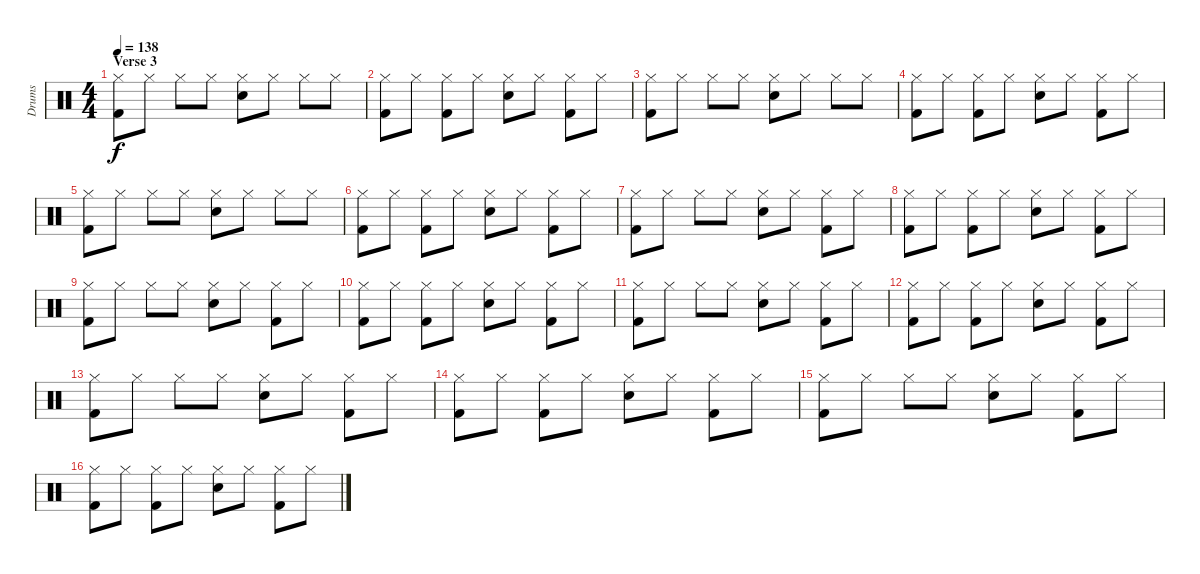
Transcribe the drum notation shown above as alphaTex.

\track ("Drums" "Drums") {instrument percussion}
\staff {score}
\articulation defaults
\ts (4 4)
\section ("" "Verse 3")
\tempo 138
\clef neutral
\ks c
("Hi-Hat (closed)" "Kick (hit) 2").8{dy f} "Hi-Hat (closed)".8 "Hi-Hat (closed)".8 "Hi-Hat (closed)".8 ("Hi-Hat (closed)" "Electric Snare (hit)").8 "Hi-Hat (closed)".8 "Hi-Hat (closed)".8 "Hi-Hat (closed)".8 |
("Hi-Hat (closed)" "Kick (hit) 2").8 "Hi-Hat (closed)".8 ("Hi-Hat (closed)" "Kick (hit) 2").8 "Hi-Hat (closed)".8 ("Hi-Hat (closed)" "Electric Snare (hit)").8 "Hi-Hat (closed)".8 ("Hi-Hat (closed)" "Kick (hit) 2").8 "Hi-Hat (closed)".8 |
("Hi-Hat (closed)" "Kick (hit) 2").8 "Hi-Hat (closed)".8 "Hi-Hat (closed)".8 "Hi-Hat (closed)".8 ("Hi-Hat (closed)" "Electric Snare (hit)").8 "Hi-Hat (closed)".8 "Hi-Hat (closed)".8 "Hi-Hat (closed)".8 |
("Hi-Hat (closed)" "Kick (hit) 2").8 "Hi-Hat (closed)".8 ("Hi-Hat (closed)" "Kick (hit) 2").8 "Hi-Hat (closed)".8 ("Hi-Hat (closed)" "Electric Snare (hit)").8 "Hi-Hat (closed)".8 ("Hi-Hat (closed)" "Kick (hit) 2").8 "Hi-Hat (closed)".8 |
("Hi-Hat (closed)" "Kick (hit) 2").8 "Hi-Hat (closed)".8 "Hi-Hat (closed)".8 "Hi-Hat (closed)".8 ("Hi-Hat (closed)" "Electric Snare (hit)").8 "Hi-Hat (closed)".8 "Hi-Hat (closed)".8 "Hi-Hat (closed)".8 |
("Hi-Hat (closed)" "Kick (hit) 2").8 "Hi-Hat (closed)".8 ("Hi-Hat (closed)" "Kick (hit) 2").8 "Hi-Hat (closed)".8 ("Hi-Hat (closed)" "Electric Snare (hit)").8 "Hi-Hat (closed)".8 ("Hi-Hat (closed)" "Kick (hit) 2").8 "Hi-Hat (closed)".8 |
("Hi-Hat (closed)" "Kick (hit) 2").8 "Hi-Hat (closed)".8 "Hi-Hat (closed)".8 "Hi-Hat (closed)".8 ("Hi-Hat (closed)" "Electric Snare (hit)").8 "Hi-Hat (closed)".8 ("Hi-Hat (closed)" "Kick (hit) 2").8 "Hi-Hat (closed)".8 |
("Hi-Hat (closed)" "Kick (hit) 2").8 "Hi-Hat (closed)".8 ("Hi-Hat (closed)" "Kick (hit) 2").8 "Hi-Hat (closed)".8 ("Hi-Hat (closed)" "Electric Snare (hit)").8 "Hi-Hat (closed)".8 ("Hi-Hat (closed)" "Kick (hit) 2").8 "Hi-Hat (closed)".8 |
("Hi-Hat (closed)" "Kick (hit) 2").8 "Hi-Hat (closed)".8 "Hi-Hat (closed)".8 "Hi-Hat (closed)".8 ("Hi-Hat (closed)" "Electric Snare (hit)").8 "Hi-Hat (closed)".8 ("Hi-Hat (closed)" "Kick (hit) 2").8 "Hi-Hat (closed)".8 |
("Hi-Hat (closed)" "Kick (hit) 2").8 "Hi-Hat (closed)".8 ("Hi-Hat (closed)" "Kick (hit) 2").8 "Hi-Hat (closed)".8 ("Hi-Hat (closed)" "Electric Snare (hit)").8 "Hi-Hat (closed)".8 ("Hi-Hat (closed)" "Kick (hit) 2").8 "Hi-Hat (closed)".8 |
("Hi-Hat (closed)" "Kick (hit) 2").8 "Hi-Hat (closed)".8 "Hi-Hat (closed)".8 "Hi-Hat (closed)".8 ("Hi-Hat (closed)" "Electric Snare (hit)").8 "Hi-Hat (closed)".8 ("Hi-Hat (closed)" "Kick (hit) 2").8 "Hi-Hat (closed)".8 |
("Hi-Hat (closed)" "Kick (hit) 2").8 "Hi-Hat (closed)".8 ("Hi-Hat (closed)" "Kick (hit) 2").8 "Hi-Hat (closed)".8 ("Hi-Hat (closed)" "Electric Snare (hit)").8 "Hi-Hat (closed)".8 ("Hi-Hat (closed)" "Kick (hit) 2").8 "Hi-Hat (closed)".8 |
("Hi-Hat (closed)" "Kick (hit) 2").8 "Hi-Hat (closed)".8 "Hi-Hat (closed)".8 "Hi-Hat (closed)".8 ("Hi-Hat (closed)" "Electric Snare (hit)").8 "Hi-Hat (closed)".8 ("Hi-Hat (closed)" "Kick (hit) 2").8 "Hi-Hat (closed)".8 |
("Hi-Hat (closed)" "Kick (hit) 2").8 "Hi-Hat (closed)".8 ("Hi-Hat (closed)" "Kick (hit) 2").8 "Hi-Hat (closed)".8 ("Hi-Hat (closed)" "Electric Snare (hit)").8 "Hi-Hat (closed)".8 ("Hi-Hat (closed)" "Kick (hit) 2").8 "Hi-Hat (closed)".8 |
("Hi-Hat (closed)" "Kick (hit) 2").8 "Hi-Hat (closed)".8 "Hi-Hat (closed)".8 "Hi-Hat (closed)".8 ("Hi-Hat (closed)" "Electric Snare (hit)").8 "Hi-Hat (closed)".8 ("Hi-Hat (closed)" "Kick (hit) 2").8 "Hi-Hat (closed)".8 |
("Hi-Hat (closed)" "Kick (hit) 2").8 "Hi-Hat (closed)".8 ("Hi-Hat (closed)" "Kick (hit) 2").8 "Hi-Hat (closed)".8 ("Hi-Hat (closed)" "Electric Snare (hit)").8 "Hi-Hat (closed)".8 ("Hi-Hat (closed)" "Kick (hit) 2").8 "Hi-Hat (closed)".8
